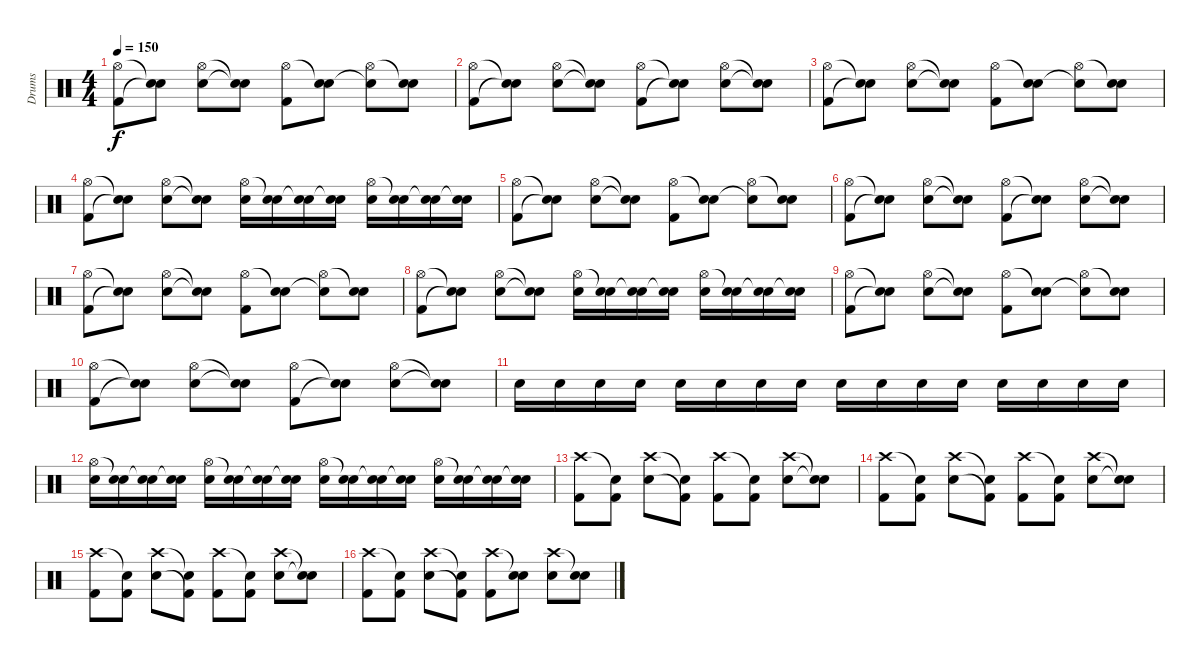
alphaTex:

\track ("Drums" "Drums") {instrument percussion bank 127}
\staff {score}
\articulation defaults
\ts (4 4)
\tempo 150
\clef neutral
\ks c
("Hi-Hat (open)" "Kick (hit) 2").8{dy f} ("Snare (hit)"{t} "Snare (hit)"{t}).8 ("Hi-Hat (open)" "Electric Snare (hit)").8 ("Snare (hit)"{t} "Snare (hit)"{t}).8 ("Hi-Hat (open)" "Kick (hit) 2").8 ("Snare (hit)"{t} "Electric Snare (hit)").8 ("Hi-Hat (open)" "Snare (hit)"{t}).8 ("Snare (hit)"{t} "Electric Snare (hit)").8 |
("Hi-Hat (open)" "Kick (hit) 2").8 ("Snare (hit)"{t} "Snare (hit)"{t}).8 ("Hi-Hat (open)" "Electric Snare (hit)").8 ("Snare (hit)"{t} "Snare (hit)"{t}).8 ("Hi-Hat (open)" "Kick (hit) 2").8 ("Snare (hit)"{t} "Snare (hit)"{t}).8 ("Hi-Hat (open)" "Electric Snare (hit)").8 ("Snare (hit)"{t} "Snare (hit)"{t}).8 |
("Hi-Hat (open)" "Kick (hit) 2").8 ("Snare (hit)"{t} "Snare (hit)"{t}).8 ("Hi-Hat (open)" "Electric Snare (hit)").8 ("Snare (hit)"{t} "Snare (hit)"{t}).8 ("Hi-Hat (open)" "Kick (hit) 2").8 ("Snare (hit)"{t} "Electric Snare (hit)").8 ("Hi-Hat (open)" "Snare (hit)"{t}).8 ("Snare (hit)"{t} "Electric Snare (hit)").8 |
("Hi-Hat (open)" "Kick (hit) 2").8 ("Snare (hit)"{t} "Snare (hit)"{t}).8 ("Hi-Hat (open)" "Electric Snare (hit)").8 ("Snare (hit)"{t} "Snare (hit)"{t}).8 ("Hi-Hat (open)" "Electric Snare (hit)").16 ("Snare (hit)"{t} "Electric Snare (hit)").16 ("Snare (hit)"{t} "Electric Snare (hit)").16 ("Snare (hit)"{t} "Electric Snare (hit)").16 ("Hi-Hat (open)" "Electric Snare (hit)").16 ("Snare (hit)"{t} "Electric Snare (hit)").16 ("Snare (hit)"{t} "Electric Snare (hit)").16 ("Snare (hit)"{t} "Electric Snare (hit)").16 |
("Hi-Hat (open)" "Kick (hit) 2").8 ("Snare (hit)"{t} "Snare (hit)"{t}).8 ("Hi-Hat (open)" "Electric Snare (hit)").8 ("Snare (hit)"{t} "Snare (hit)"{t}).8 ("Hi-Hat (open)" "Kick (hit) 2").8 ("Snare (hit)"{t} "Electric Snare (hit)").8 ("Hi-Hat (open)" "Snare (hit)"{t}).8 ("Snare (hit)"{t} "Electric Snare (hit)").8 |
("Hi-Hat (open)" "Kick (hit) 2").8 ("Snare (hit)"{t} "Snare (hit)"{t}).8 ("Hi-Hat (open)" "Electric Snare (hit)").8 ("Snare (hit)"{t} "Snare (hit)"{t}).8 ("Hi-Hat (open)" "Kick (hit) 2").8 ("Snare (hit)"{t} "Snare (hit)"{t}).8 ("Hi-Hat (open)" "Electric Snare (hit)").8 ("Snare (hit)"{t} "Snare (hit)"{t}).8 |
("Hi-Hat (open)" "Kick (hit) 2").8 ("Snare (hit)"{t} "Snare (hit)"{t}).8 ("Hi-Hat (open)" "Electric Snare (hit)").8 ("Snare (hit)"{t} "Snare (hit)"{t}).8 ("Hi-Hat (open)" "Kick (hit) 2").8 ("Snare (hit)"{t} "Electric Snare (hit)").8 ("Hi-Hat (open)" "Snare (hit)"{t}).8 ("Snare (hit)"{t} "Electric Snare (hit)").8 |
("Hi-Hat (open)" "Kick (hit) 2").8 ("Snare (hit)"{t} "Snare (hit)"{t}).8 ("Hi-Hat (open)" "Electric Snare (hit)").8 ("Snare (hit)"{t} "Snare (hit)"{t}).8 ("Hi-Hat (open)" "Electric Snare (hit)").16 ("Snare (hit)"{t} "Electric Snare (hit)").16 ("Snare (hit)"{t} "Electric Snare (hit)").16 ("Snare (hit)"{t} "Electric Snare (hit)").16 ("Hi-Hat (open)" "Electric Snare (hit)").16 ("Snare (hit)"{t} "Electric Snare (hit)").16 ("Snare (hit)"{t} "Electric Snare (hit)").16 ("Snare (hit)"{t} "Electric Snare (hit)").16 |
("Hi-Hat (open)" "Kick (hit) 2").8 ("Snare (hit)"{t} "Snare (hit)"{t}).8 ("Hi-Hat (open)" "Electric Snare (hit)").8 ("Snare (hit)"{t} "Snare (hit)"{t}).8 ("Hi-Hat (open)" "Kick (hit) 2").8 ("Snare (hit)"{t} "Electric Snare (hit)").8 ("Hi-Hat (open)" "Snare (hit)"{t}).8 ("Snare (hit)"{t} "Electric Snare (hit)").8 |
("Hi-Hat (open)" "Kick (hit) 2").8 ("Snare (hit)"{t} "Snare (hit)"{t}).8 ("Hi-Hat (open)" "Electric Snare (hit)").8 ("Snare (hit)"{t} "Snare (hit)"{t}).8 ("Hi-Hat (open)" "Kick (hit) 2").8 ("Snare (hit)"{t} "Snare (hit)"{t}).8 ("Hi-Hat (open)" "Electric Snare (hit)").8 ("Snare (hit)"{t} "Snare (hit)"{t}).8 |
"Electric Snare (hit)".16 "Electric Snare (hit)".16 "Electric Snare (hit)".16 "Electric Snare (hit)".16 "Electric Snare (hit)".16 "Electric Snare (hit)".16 "Electric Snare (hit)".16 "Electric Snare (hit)".16 "Electric Snare (hit)".16 "Electric Snare (hit)".16 "Electric Snare (hit)".16 "Electric Snare (hit)".16 "Electric Snare (hit)".16 "Electric Snare (hit)".16 "Electric Snare (hit)".16 "Electric Snare (hit)".16 |
("Hi-Hat (open)" "Electric Snare (hit)").16 ("Snare (hit)"{t} "Electric Snare (hit)").16 ("Snare (hit)"{t} "Electric Snare (hit)").16 ("Snare (hit)"{t} "Electric Snare (hit)").16 ("Hi-Hat (open)" "Electric Snare (hit)").16 ("Snare (hit)"{t} "Electric Snare (hit)").16 ("Snare (hit)"{t} "Electric Snare (hit)").16 ("Snare (hit)"{t} "Electric Snare (hit)").16 ("Hi-Hat (open)" "Electric Snare (hit)").16 ("Snare (hit)"{t} "Electric Snare (hit)").16 ("Snare (hit)"{t} "Electric Snare (hit)").16 ("Snare (hit)"{t} "Electric Snare (hit)").16 ("Hi-Hat (open)" "Electric Snare (hit)").16 ("Snare (hit)"{t} "Electric Snare (hit)").16 ("Snare (hit)"{t} "Electric Snare (hit)").16 ("Snare (hit)"{t} "Electric Snare (hit)").16 |
("Crash high (hit)" "Kick (hit) 2").8 ("Snare (hit)"{t} "Kick (hit) 2").8 ("Crash high (hit)" "Electric Snare (hit)").8 ("Snare (hit)"{t} "Kick (hit) 2"{t}).8 ("Crash high (hit)" "Kick (hit) 2").8 ("Snare (hit)"{t} "Kick (hit) 2").8 ("Crash high (hit)" "Electric Snare (hit)").8 ("Snare (hit)"{t} "Snare (hit)"{t}).8 |
("Crash high (hit)" "Kick (hit) 2").8 ("Snare (hit)"{t} "Kick (hit) 2").8 ("Crash high (hit)" "Electric Snare (hit)").8 ("Snare (hit)"{t} "Kick (hit) 2"{t}).8 ("Crash high (hit)" "Kick (hit) 2").8 ("Snare (hit)"{t} "Kick (hit) 2").8 ("Crash high (hit)" "Electric Snare (hit)").8 ("Snare (hit)"{t} "Snare (hit)"{t}).8 |
("Crash high (hit)" "Kick (hit) 2").8 ("Snare (hit)"{t} "Kick (hit) 2").8 ("Crash high (hit)" "Electric Snare (hit)").8 ("Snare (hit)"{t} "Kick (hit) 2"{t}).8 ("Crash high (hit)" "Kick (hit) 2").8 ("Snare (hit)"{t} "Kick (hit) 2").8 ("Crash high (hit)" "Electric Snare (hit)").8 ("Snare (hit)"{t} "Snare (hit)"{t}).8 |
("Crash high (hit)" "Kick (hit) 2").8 ("Snare (hit)"{t} "Kick (hit) 2").8 ("Crash high (hit)" "Electric Snare (hit)").8 ("Snare (hit)"{t} "Kick (hit) 2"{t}).8 ("Crash high (hit)" "Kick (hit) 2").8 ("Snare (hit)"{t} "Electric Snare (hit)").8 ("Crash high (hit)" "Electric Snare (hit)").8 ("Snare (hit)"{t} "Electric Snare (hit)").8
